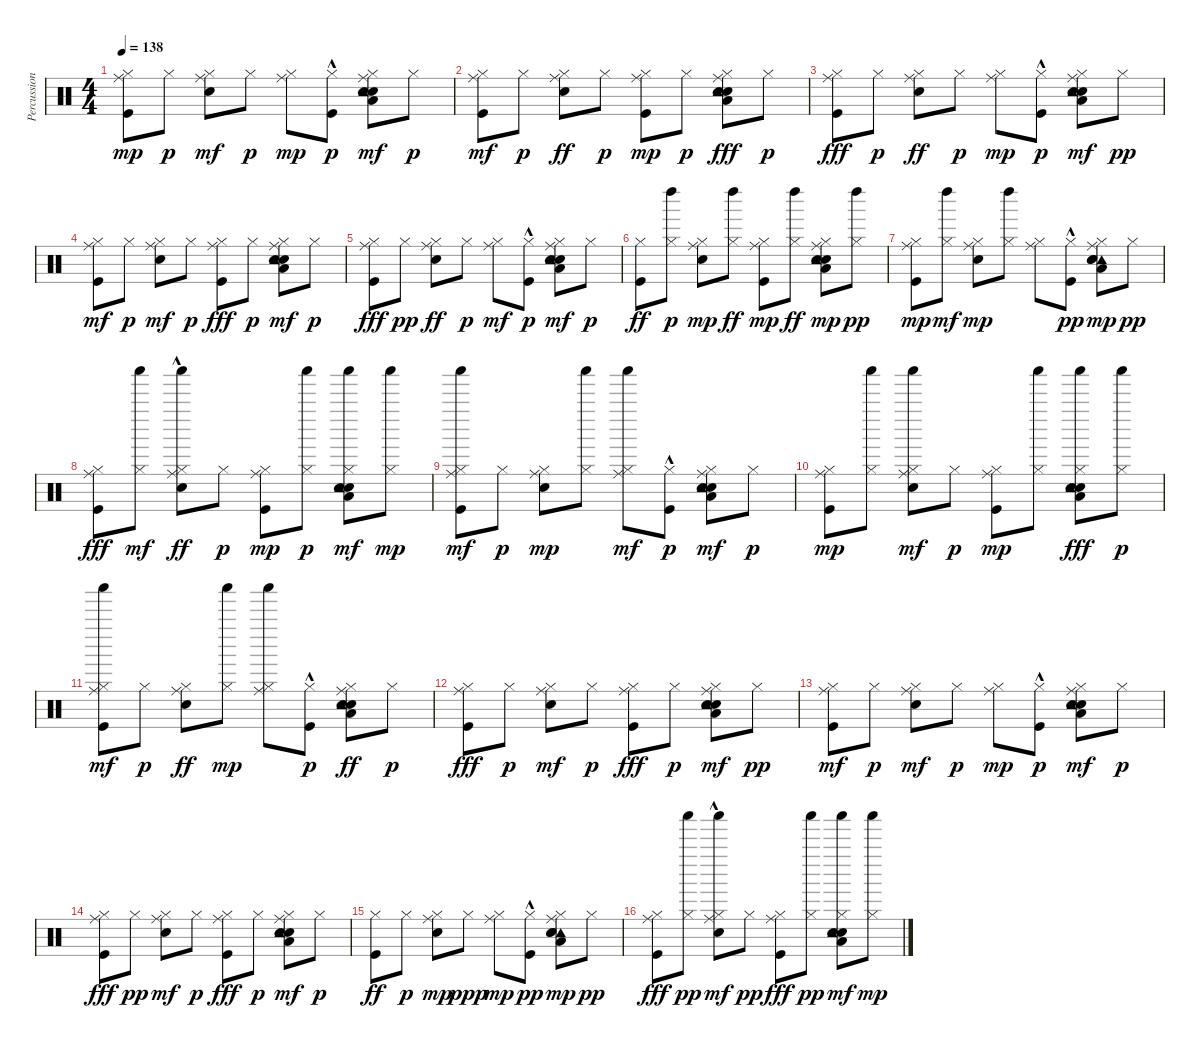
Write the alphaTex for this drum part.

\track ("Percussion" "Percussion") {instrument percussion}
\staff {score}
\articulation defaults
\ts (4 4)
\tempo 138
\clef neutral
\ks c
("Kick (hit)" "Hi-Hat (closed)" "Ride (middle)").8{dy mp} "Hi-Hat (closed)".8{dy p} ("Electric Snare (hit)" "Hi-Hat (closed)" "Ride (middle)").8{dy mf} "Hi-Hat (closed)".8{dy p} ("Hi-Hat (closed)" "Ride (middle)").8{dy mp} ("Kick (hit)"{hac} "Hi-Hat (closed)").8{dy p} ("Hand Clap (hit)" "Low Floor Tom (hit)" "Snare (hit) 2" "Tambourine (hit)" "Hi-Hat (closed)" "Ride (middle)").8{dy mf} "Hi-Hat (closed)".8{dy p} |
("Kick (hit)" "Hi-Hat (closed)" "Ride (middle)").8{dy mf} "Hi-Hat (closed)".8{dy p} ("Hi-Hat (closed)" "Ride (middle)" "Electric Snare (hit)").8{dy ff} "Hi-Hat (closed)".8{dy p} ("Kick (hit)" "Hi-Hat (closed)" "Ride (middle)").8{dy mp} "Hi-Hat (closed)".8{dy p} ("Hi-Hat (closed)" "Ride (middle)" "Hand Clap (hit)" "Snare (hit) 2" "Low Floor Tom (hit)" "Tambourine (hit)").8{dy fff} "Hi-Hat (closed)".8{dy p} |
("Hi-Hat (closed)" "Ride (middle)" "Kick (hit)").8{dy fff} "Hi-Hat (closed)".8{dy p} ("Hi-Hat (closed)" "Ride (middle)" "Electric Snare (hit)").8{dy ff} "Hi-Hat (closed)".8{dy p} ("Hi-Hat (closed)" "Ride (middle)").8{dy mp} ("Kick (hit)"{hac} "Hi-Hat (closed)").8{dy p} ("Snare (hit) 2" "Hand Clap (hit)" "Tambourine (hit)" "Low Floor Tom (hit)" "Hi-Hat (closed)" "Ride (middle)").8{dy mf} "Hi-Hat (closed)".8{dy pp} |
("Kick (hit)" "Hi-Hat (closed)" "Ride (middle)").8{dy mf} "Hi-Hat (closed)".8{dy p} ("Electric Snare (hit)" "Hi-Hat (closed)" "Ride (middle)").8{dy mf} "Hi-Hat (closed)".8{dy p} ("Hi-Hat (closed)" "Ride (middle)" "Kick (hit)").8{dy fff} "Hi-Hat (closed)".8{dy p} ("Snare (hit) 2" "Hand Clap (hit)" "Low Floor Tom (hit)" "Tambourine (hit)" "Hi-Hat (closed)" "Ride (middle)").8{dy mf} "Hi-Hat (closed)".8{dy p} |
("Hi-Hat (closed)" "Ride (middle)" "Kick (hit)").8{dy fff} "Hi-Hat (closed)".8{dy pp} ("Hi-Hat (closed)" "Ride (middle)" "Electric Snare (hit)").8{dy ff} "Hi-Hat (closed)".8{dy p} ("Hi-Hat (closed)" "Ride (middle)").8{dy mf} ("Kick (hit)"{hac} "Hi-Hat (closed)").8{dy p} ("Snare (hit) 2" "Hand Clap (hit)" "Tambourine (hit)" "Low Floor Tom (hit)" "Hi-Hat (closed)" "Ride (middle)").8{dy mf} "Hi-Hat (closed)".8{dy p} |
("Kick (hit)" "Hi-Hat (closed)").8{dy ff} ("Hi-Hat (closed)" "Left Maraca (hit)").8{dy p} ("Electric Snare (hit)" "Hi-Hat (closed)" "Ride (middle)").8{dy mp} ("Hi-Hat (closed)" "Left Maraca (hit)").8{dy ff} ("Kick (hit)" "Hi-Hat (closed)" "Ride (middle)").8{dy mp} ("Hi-Hat (closed)" "Left Maraca (hit)").8{dy ff} ("Hand Clap (hit)" "Snare (hit) 2" "Low Floor Tom (hit)" "Tambourine (hit)" "Hi-Hat (closed)" "Ride (middle)").8{dy mp} ("Hi-Hat (closed)" "Left Maraca (hit)").8{dy pp} |
("Kick (hit)" "Hi-Hat (closed)" "Ride (middle)").8{dy mp} ("Hi-Hat (closed)" "Left Maraca (hit)").8{dy mf} ("Electric Snare (hit)" "Hi-Hat (closed)" "Ride (middle)").8{dy mp} ("Hi-Hat (closed)" "Left Maraca (hit)").8 ("Hi-Hat (closed)" "Ride (middle)").8 ("Kick (hit)"{hac} "Hi-Hat (closed)").8{dy pp} ("Tambourine (hit)" "Hand Clap (hit)" "Low Floor Tom (hit)" "Snare (hit) 2" "Hi-Hat (closed)" "Ride (middle)").8{dy mp} "Hi-Hat (closed)".8{dy pp} |
("Hi-Hat (closed)" "Ride (middle)" "Kick (hit)").8{dy fff} ("Hi-Hat (closed)" "Shaker (hit)").8{dy mf} ("Hi-Hat (closed)" "Ride (middle)" "Shaker (hit)"{hac} "Electric Snare (hit)").8{dy ff} "Hi-Hat (closed)".8{dy p} ("Kick (hit)" "Hi-Hat (closed)" "Ride (middle)").8{dy mp} ("Shaker (hit)" "Hi-Hat (closed)").8{dy p} ("Snare (hit) 2" "Tambourine (hit)" "Shaker (hit)" "Low Floor Tom (hit)" "Hand Clap (hit)" "Hi-Hat (closed)").8{dy mf} ("Hi-Hat (closed)" "Shaker (hit)").8{dy mp} |
("Kick (hit)" "Hi-Hat (closed)" "Ride (middle)" "Shaker (hit)").8{dy mf} "Hi-Hat (closed)".8{dy p} ("Electric Snare (hit)" "Hi-Hat (closed)" "Ride (middle)").8{dy mp} ("Hi-Hat (closed)" "Shaker (hit)").8 ("Shaker (hit)" "Hi-Hat (closed)" "Ride (middle)").8{dy mf} ("Kick (hit)"{hac} "Hi-Hat (closed)").8{dy p} ("Hand Clap (hit)" "Low Floor Tom (hit)" "Snare (hit) 2" "Tambourine (hit)" "Hi-Hat (closed)" "Ride (middle)").8{dy mf} "Hi-Hat (closed)".8{dy p} |
("Kick (hit)" "Hi-Hat (closed)" "Ride (middle)").8{dy mp} ("Hi-Hat (closed)" "Shaker (hit)").8 ("Hi-Hat (closed)" "Ride (middle)" "Electric Snare (hit)" "Shaker (hit)").8{dy mf} "Hi-Hat (closed)".8{dy p} ("Kick (hit)" "Hi-Hat (closed)" "Ride (middle)").8{dy mp} ("Hi-Hat (closed)" "Shaker (hit)").8 ("Shaker (hit)" "Hand Clap (hit)" "Snare (hit) 2" "Low Floor Tom (hit)" "Tambourine (hit)" "Hi-Hat (closed)").8{dy fff} ("Shaker (hit)" "Hi-Hat (closed)").8{dy p} |
("Shaker (hit)" "Kick (hit)" "Hi-Hat (closed)" "Ride (middle)").8{dy mf} "Hi-Hat (closed)".8{dy p} ("Hi-Hat (closed)" "Ride (middle)" "Electric Snare (hit)").8{dy ff} ("Hi-Hat (closed)" "Shaker (hit)").8{dy mp} ("Hi-Hat (closed)" "Ride (middle)" "Shaker (hit)").8 ("Kick (hit)"{hac} "Hi-Hat (closed)").8{dy p} ("Hi-Hat (closed)" "Ride (middle)" "Snare (hit) 2" "Hand Clap (hit)" "Tambourine (hit)" "Low Floor Tom (hit)").8{dy ff} "Hi-Hat (closed)".8{dy p} |
("Hi-Hat (closed)" "Ride (middle)" "Kick (hit)").8{dy fff} "Hi-Hat (closed)".8{dy p} ("Electric Snare (hit)" "Hi-Hat (closed)" "Ride (middle)").8{dy mf} "Hi-Hat (closed)".8{dy p} ("Hi-Hat (closed)" "Ride (middle)" "Kick (hit)").8{dy fff} "Hi-Hat (closed)".8{dy p} ("Snare (hit) 2" "Hand Clap (hit)" "Low Floor Tom (hit)" "Tambourine (hit)" "Hi-Hat (closed)" "Ride (middle)").8{dy mf} "Hi-Hat (closed)".8{dy pp} |
("Kick (hit)" "Hi-Hat (closed)" "Ride (middle)").8{dy mf} "Hi-Hat (closed)".8{dy p} ("Electric Snare (hit)" "Hi-Hat (closed)" "Ride (middle)").8{dy mf} "Hi-Hat (closed)".8{dy p} ("Hi-Hat (closed)" "Ride (middle)").8{dy mp} ("Kick (hit)"{hac} "Hi-Hat (closed)").8{dy p} ("Snare (hit) 2" "Hand Clap (hit)" "Tambourine (hit)" "Low Floor Tom (hit)" "Hi-Hat (closed)" "Ride (middle)").8{dy mf} "Hi-Hat (closed)".8{dy p} |
("Hi-Hat (closed)" "Ride (middle)" "Kick (hit)").8{dy fff} "Hi-Hat (closed)".8{dy pp} ("Electric Snare (hit)" "Hi-Hat (closed)" "Ride (middle)").8{dy mf} "Hi-Hat (closed)".8{dy p} ("Hi-Hat (closed)" "Ride (middle)" "Kick (hit)").8{dy fff} "Hi-Hat (closed)".8{dy p} ("Hand Clap (hit)" "Snare (hit) 2" "Low Floor Tom (hit)" "Tambourine (hit)" "Hi-Hat (closed)" "Ride (middle)").8{dy mf} "Hi-Hat (closed)".8{dy p} |
("Kick (hit)" "Hi-Hat (closed)").8{dy ff} "Hi-Hat (closed)".8{dy p} ("Electric Snare (hit)" "Hi-Hat (closed)" "Ride (middle)").8{dy mp} "Hi-Hat (closed)".8{dy ppp} ("Hi-Hat (closed)" "Ride (middle)").8{dy mp} ("Kick (hit)"{hac} "Hi-Hat (closed)").8{dy pp} ("Tambourine (hit)" "Hand Clap (hit)" "Low Floor Tom (hit)" "Snare (hit) 2" "Hi-Hat (closed)" "Ride (middle)").8{dy mp} "Hi-Hat (closed)".8{dy pp} |
("Hi-Hat (closed)" "Ride (middle)" "Kick (hit)").8{dy fff} ("Shaker (hit)" "Hi-Hat (closed)").8{dy pp} ("Electric Snare (hit)" "Hi-Hat (closed)" "Ride (middle)" "Shaker (hit)"{hac}).8{dy mf} "Hi-Hat (closed)".8{dy pp} ("Hi-Hat (closed)" "Ride (middle)" "Kick (hit)").8{dy fff} ("Shaker (hit)" "Hi-Hat (closed)").8{dy pp} ("Shaker (hit)" "Snare (hit) 2" "Hand Clap (hit)" "Low Floor Tom (hit)" "Tambourine (hit)" "Hi-Hat (closed)").8{dy mf} ("Hi-Hat (closed)" "Shaker (hit)").8{dy mp}
